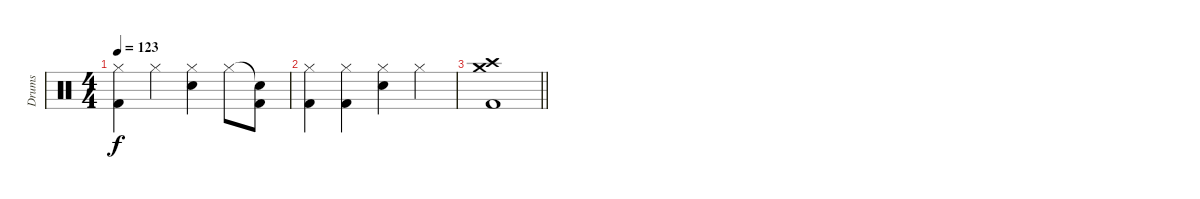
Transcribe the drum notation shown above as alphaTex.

\track ("Drums" "Drums") {instrument percussion}
\staff {score}
\articulation defaults
\ts (4 4)
\tempo 123
\clef neutral
\ks c
("Hi-Hat (closed)" "Kick (hit) 2").4{dy f} "Hi-Hat (closed)".4 ("Hi-Hat (closed)" "Electric Snare (hit)").4 "Hi-Hat (closed)".8 ("Snare (hit)"{t} "Kick (hit) 2").8 |
("Hi-Hat (closed)" "Kick (hit) 2").4 ("Hi-Hat (closed)" "Kick (hit) 2").4 ("Hi-Hat (closed)" "Electric Snare (hit)").4 "Hi-Hat (closed)".4 |
\barLineRight lightlight
("Crash medium (hit)" "Crash high (hit)" "Kick (hit) 2").1
